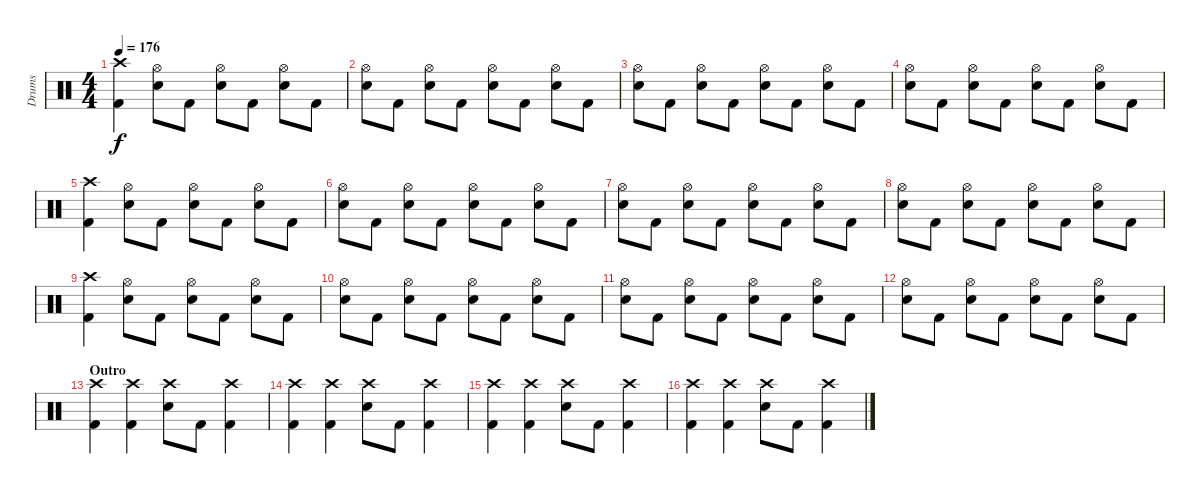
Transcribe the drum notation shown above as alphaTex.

\track ("Drums" "Drums") {instrument percussion}
\staff {score}
\articulation defaults
\ts (4 4)
\tempo 176
\clef neutral
\ks c
("Crash high (hit)" "Kick (hit) 2").4{dy f} ("Hi-Hat (open)" "Electric Snare (hit)").8 "Kick (hit) 2".8 ("Hi-Hat (open)" "Electric Snare (hit)").8 "Kick (hit) 2".8 ("Hi-Hat (open)" "Electric Snare (hit)").8 "Kick (hit) 2".8 |
("Hi-Hat (open)" "Electric Snare (hit)").8 "Kick (hit) 2".8 ("Hi-Hat (open)" "Electric Snare (hit)").8 "Kick (hit) 2".8 ("Hi-Hat (open)" "Electric Snare (hit)").8 "Kick (hit) 2".8 ("Hi-Hat (open)" "Electric Snare (hit)").8 "Kick (hit) 2".8 |
("Hi-Hat (open)" "Electric Snare (hit)").8 "Kick (hit) 2".8 ("Hi-Hat (open)" "Electric Snare (hit)").8 "Kick (hit) 2".8 ("Hi-Hat (open)" "Electric Snare (hit)").8 "Kick (hit) 2".8 ("Hi-Hat (open)" "Electric Snare (hit)").8 "Kick (hit) 2".8 |
("Hi-Hat (open)" "Electric Snare (hit)").8 "Kick (hit) 2".8 ("Hi-Hat (open)" "Electric Snare (hit)").8 "Kick (hit) 2".8 ("Hi-Hat (open)" "Electric Snare (hit)").8 "Kick (hit) 2".8 ("Hi-Hat (open)" "Electric Snare (hit)").8 "Kick (hit) 2".8 |
("Crash high (hit)" "Kick (hit) 2").4 ("Hi-Hat (open)" "Electric Snare (hit)").8 "Kick (hit) 2".8 ("Hi-Hat (open)" "Electric Snare (hit)").8 "Kick (hit) 2".8 ("Hi-Hat (open)" "Electric Snare (hit)").8 "Kick (hit) 2".8 |
("Hi-Hat (open)" "Electric Snare (hit)").8 "Kick (hit) 2".8 ("Hi-Hat (open)" "Electric Snare (hit)").8 "Kick (hit) 2".8 ("Hi-Hat (open)" "Electric Snare (hit)").8 "Kick (hit) 2".8 ("Hi-Hat (open)" "Electric Snare (hit)").8 "Kick (hit) 2".8 |
("Hi-Hat (open)" "Electric Snare (hit)").8 "Kick (hit) 2".8 ("Hi-Hat (open)" "Electric Snare (hit)").8 "Kick (hit) 2".8 ("Hi-Hat (open)" "Electric Snare (hit)").8 "Kick (hit) 2".8 ("Hi-Hat (open)" "Electric Snare (hit)").8 "Kick (hit) 2".8 |
("Hi-Hat (open)" "Electric Snare (hit)").8 "Kick (hit) 2".8 ("Hi-Hat (open)" "Electric Snare (hit)").8 "Kick (hit) 2".8 ("Hi-Hat (open)" "Electric Snare (hit)").8 "Kick (hit) 2".8 ("Hi-Hat (open)" "Electric Snare (hit)").8 "Kick (hit) 2".8 |
("Crash high (hit)" "Kick (hit) 2").4 ("Hi-Hat (open)" "Electric Snare (hit)").8 "Kick (hit) 2".8 ("Hi-Hat (open)" "Electric Snare (hit)").8 "Kick (hit) 2".8 ("Hi-Hat (open)" "Electric Snare (hit)").8 "Kick (hit) 2".8 |
("Hi-Hat (open)" "Electric Snare (hit)").8 "Kick (hit) 2".8 ("Hi-Hat (open)" "Electric Snare (hit)").8 "Kick (hit) 2".8 ("Hi-Hat (open)" "Electric Snare (hit)").8 "Kick (hit) 2".8 ("Hi-Hat (open)" "Electric Snare (hit)").8 "Kick (hit) 2".8 |
("Hi-Hat (open)" "Electric Snare (hit)").8 "Kick (hit) 2".8 ("Hi-Hat (open)" "Electric Snare (hit)").8 "Kick (hit) 2".8 ("Hi-Hat (open)" "Electric Snare (hit)").8 "Kick (hit) 2".8 ("Hi-Hat (open)" "Electric Snare (hit)").8 "Kick (hit) 2".8 |
("Hi-Hat (open)" "Electric Snare (hit)").8 "Kick (hit) 2".8 ("Hi-Hat (open)" "Electric Snare (hit)").8 "Kick (hit) 2".8 ("Hi-Hat (open)" "Electric Snare (hit)").8 "Kick (hit) 2".8 ("Hi-Hat (open)" "Electric Snare (hit)").8 "Kick (hit) 2".8 |
\section ("" "Outro")
("Crash high (hit)" "Kick (hit) 2").4 ("Crash high (hit)" "Kick (hit) 2").4 ("Crash high (hit)" "Electric Snare (hit)").8 "Kick (hit) 2".8 ("Crash high (hit)" "Kick (hit) 2").4 |
("Crash high (hit)" "Kick (hit) 2").4 ("Crash high (hit)" "Kick (hit) 2").4 ("Crash high (hit)" "Electric Snare (hit)").8 "Kick (hit) 2".8 ("Crash high (hit)" "Kick (hit) 2").4 |
("Crash high (hit)" "Kick (hit) 2").4 ("Crash high (hit)" "Kick (hit) 2").4 ("Crash high (hit)" "Electric Snare (hit)").8 "Kick (hit) 2".8 ("Crash high (hit)" "Kick (hit) 2").4 |
("Crash high (hit)" "Kick (hit) 2").4 ("Crash high (hit)" "Kick (hit) 2").4 ("Crash high (hit)" "Electric Snare (hit)").8 "Kick (hit) 2".8 ("Crash high (hit)" "Kick (hit) 2").4
